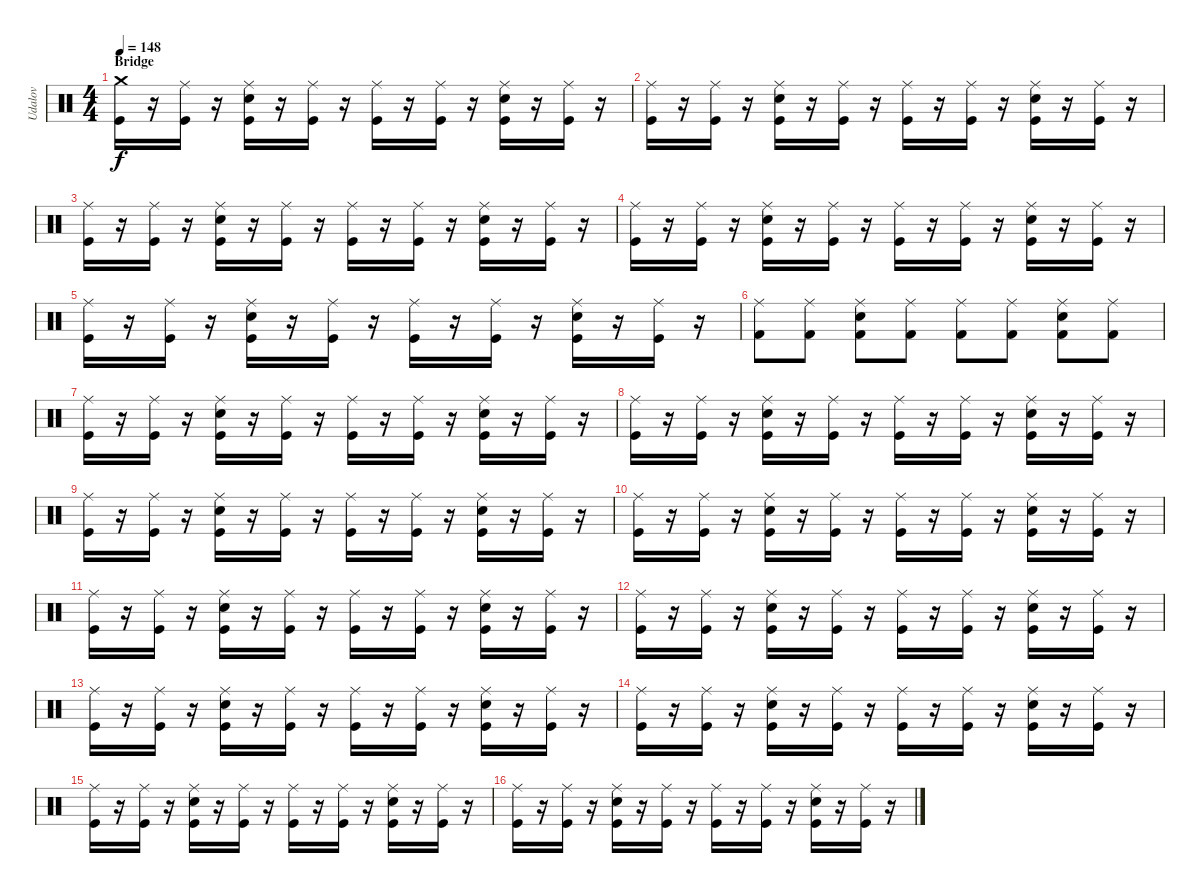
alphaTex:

\track ("Udalov" "Udalov") {instrument percussion}
\staff {score}
\articulation defaults
\ts (4 4)
\section ("" "Bridge")
\tempo 148
\clef neutral
\ks c
("Kick (hit)" "Crash medium (hit)").16{dy f} r.16 ("Kick (hit)" "Ride (middle)").16 r.16 ("Electric Snare (hit)" "Kick (hit)" "Ride (middle)").16 r.16 ("Kick (hit)" "Ride (middle)").16 r.16 ("Kick (hit)" "Ride (middle)").16 r.16 ("Kick (hit)" "Ride (middle)").16 r.16 ("Electric Snare (hit)" "Kick (hit)" "Ride (middle)").16 r.16 ("Kick (hit)" "Ride (middle)").16 r.16 |
("Kick (hit)" "Ride (middle)").16 r.16 ("Kick (hit)" "Ride (middle)").16 r.16 ("Electric Snare (hit)" "Kick (hit)" "Ride (middle)").16 r.16 ("Kick (hit)" "Ride (middle)").16 r.16 ("Kick (hit)" "Ride (middle)").16 r.16 ("Kick (hit)" "Ride (middle)").16 r.16 ("Electric Snare (hit)" "Kick (hit)" "Ride (middle)").16 r.16 ("Kick (hit)" "Ride (middle)").16 r.16 |
("Kick (hit)" "Ride (middle)").16 r.16 ("Kick (hit)" "Ride (middle)").16 r.16 ("Electric Snare (hit)" "Kick (hit)" "Ride (middle)").16 r.16 ("Kick (hit)" "Ride (middle)").16 r.16 ("Kick (hit)" "Ride (middle)").16 r.16 ("Kick (hit)" "Ride (middle)").16 r.16 ("Electric Snare (hit)" "Kick (hit)" "Ride (middle)").16 r.16 ("Kick (hit)" "Ride (middle)").16 r.16 |
("Kick (hit)" "Ride (middle)").16 r.16 ("Kick (hit)" "Ride (middle)").16 r.16 ("Electric Snare (hit)" "Kick (hit)" "Ride (middle)").16 r.16 ("Kick (hit)" "Ride (middle)").16 r.16 ("Kick (hit)" "Ride (middle)").16 r.16 ("Kick (hit)" "Ride (middle)").16 r.16 ("Electric Snare (hit)" "Kick (hit)" "Ride (middle)").16 r.16 ("Kick (hit)" "Ride (middle)").16 r.16 |
("Kick (hit)" "Ride (middle)").16 r.16 ("Kick (hit)" "Ride (middle)").16 r.16 ("Electric Snare (hit)" "Kick (hit)" "Ride (middle)").16 r.16 ("Kick (hit)" "Ride (middle)").16 r.16 ("Kick (hit)" "Ride (middle)").16 r.16 ("Kick (hit)" "Ride (middle)").16 r.16 ("Electric Snare (hit)" "Kick (hit)" "Ride (middle)").16 r.16 ("Kick (hit)" "Ride (middle)").16 r.16 |
("Kick (hit) 2" "Ride (middle)").8 ("Kick (hit) 2" "Ride (middle)").8 ("Electric Snare (hit)" "Kick (hit) 2" "Ride (middle)").8 ("Kick (hit) 2" "Ride (middle)").8 ("Kick (hit) 2" "Ride (middle)").8 ("Kick (hit) 2" "Ride (middle)").8 ("Electric Snare (hit)" "Kick (hit) 2" "Ride (middle)").8 ("Kick (hit) 2" "Ride (middle)").8 |
("Kick (hit)" "Ride (middle)").16 r.16 ("Kick (hit)" "Ride (middle)").16 r.16 ("Electric Snare (hit)" "Kick (hit)" "Ride (middle)").16 r.16 ("Kick (hit)" "Ride (middle)").16 r.16 ("Kick (hit)" "Ride (middle)").16 r.16 ("Kick (hit)" "Ride (middle)").16 r.16 ("Electric Snare (hit)" "Kick (hit)" "Ride (middle)").16 r.16 ("Kick (hit)" "Ride (middle)").16 r.16 |
("Kick (hit)" "Ride (middle)").16 r.16 ("Kick (hit)" "Ride (middle)").16 r.16 ("Electric Snare (hit)" "Kick (hit)" "Ride (middle)").16 r.16 ("Kick (hit)" "Ride (middle)").16 r.16 ("Kick (hit)" "Ride (middle)").16 r.16 ("Kick (hit)" "Ride (middle)").16 r.16 ("Electric Snare (hit)" "Kick (hit)" "Ride (middle)").16 r.16 ("Kick (hit)" "Ride (middle)").16 r.16 |
("Kick (hit)" "Ride (middle)").16 r.16 ("Kick (hit)" "Ride (middle)").16 r.16 ("Electric Snare (hit)" "Kick (hit)" "Ride (middle)").16 r.16 ("Kick (hit)" "Ride (middle)").16 r.16 ("Kick (hit)" "Ride (middle)").16 r.16 ("Kick (hit)" "Ride (middle)").16 r.16 ("Electric Snare (hit)" "Kick (hit)" "Ride (middle)").16 r.16 ("Kick (hit)" "Ride (middle)").16 r.16 |
("Kick (hit)" "Ride (middle)").16 r.16 ("Kick (hit)" "Ride (middle)").16 r.16 ("Electric Snare (hit)" "Kick (hit)" "Ride (middle)").16 r.16 ("Kick (hit)" "Ride (middle)").16 r.16 ("Kick (hit)" "Ride (middle)").16 r.16 ("Kick (hit)" "Ride (middle)").16 r.16 ("Electric Snare (hit)" "Kick (hit)" "Ride (middle)").16 r.16 ("Kick (hit)" "Ride (middle)").16 r.16 |
("Kick (hit)" "Ride (middle)").16 r.16 ("Kick (hit)" "Ride (middle)").16 r.16 ("Electric Snare (hit)" "Kick (hit)" "Ride (middle)").16 r.16 ("Kick (hit)" "Ride (middle)").16 r.16 ("Kick (hit)" "Ride (middle)").16 r.16 ("Kick (hit)" "Ride (middle)").16 r.16 ("Electric Snare (hit)" "Kick (hit)" "Ride (middle)").16 r.16 ("Kick (hit)" "Ride (middle)").16 r.16 |
("Kick (hit)" "Ride (middle)").16 r.16 ("Kick (hit)" "Ride (middle)").16 r.16 ("Electric Snare (hit)" "Kick (hit)" "Ride (middle)").16 r.16 ("Kick (hit)" "Ride (middle)").16 r.16 ("Kick (hit)" "Ride (middle)").16 r.16 ("Kick (hit)" "Ride (middle)").16 r.16 ("Electric Snare (hit)" "Kick (hit)" "Ride (middle)").16 r.16 ("Kick (hit)" "Ride (middle)").16 r.16 |
("Kick (hit)" "Ride (middle)").16 r.16 ("Kick (hit)" "Ride (middle)").16 r.16 ("Electric Snare (hit)" "Kick (hit)" "Ride (middle)").16 r.16 ("Kick (hit)" "Ride (middle)").16 r.16 ("Kick (hit)" "Ride (middle)").16 r.16 ("Kick (hit)" "Ride (middle)").16 r.16 ("Electric Snare (hit)" "Kick (hit)" "Ride (middle)").16 r.16 ("Kick (hit)" "Ride (middle)").16 r.16 |
("Kick (hit)" "Ride (middle)").16 r.16 ("Kick (hit)" "Ride (middle)").16 r.16 ("Electric Snare (hit)" "Kick (hit)" "Ride (middle)").16 r.16 ("Kick (hit)" "Ride (middle)").16 r.16 ("Kick (hit)" "Ride (middle)").16 r.16 ("Kick (hit)" "Ride (middle)").16 r.16 ("Electric Snare (hit)" "Kick (hit)" "Ride (middle)").16 r.16 ("Kick (hit)" "Ride (middle)").16 r.16 |
("Kick (hit)" "Ride (middle)").16 r.16 ("Kick (hit)" "Ride (middle)").16 r.16 ("Electric Snare (hit)" "Kick (hit)" "Ride (middle)").16 r.16 ("Kick (hit)" "Ride (middle)").16 r.16 ("Kick (hit)" "Ride (middle)").16 r.16 ("Kick (hit)" "Ride (middle)").16 r.16 ("Electric Snare (hit)" "Kick (hit)" "Ride (middle)").16 r.16 ("Kick (hit)" "Ride (middle)").16 r.16 |
("Kick (hit)" "Ride (middle)").16 r.16 ("Kick (hit)" "Ride (middle)").16 r.16 ("Electric Snare (hit)" "Kick (hit)" "Ride (middle)").16 r.16 ("Kick (hit)" "Ride (middle)").16 r.16 ("Kick (hit)" "Ride (middle)").16 r.16 ("Kick (hit)" "Ride (middle)").16 r.16 ("Electric Snare (hit)" "Kick (hit)" "Ride (middle)").16 r.16 ("Kick (hit)" "Ride (middle)").16 r.16
